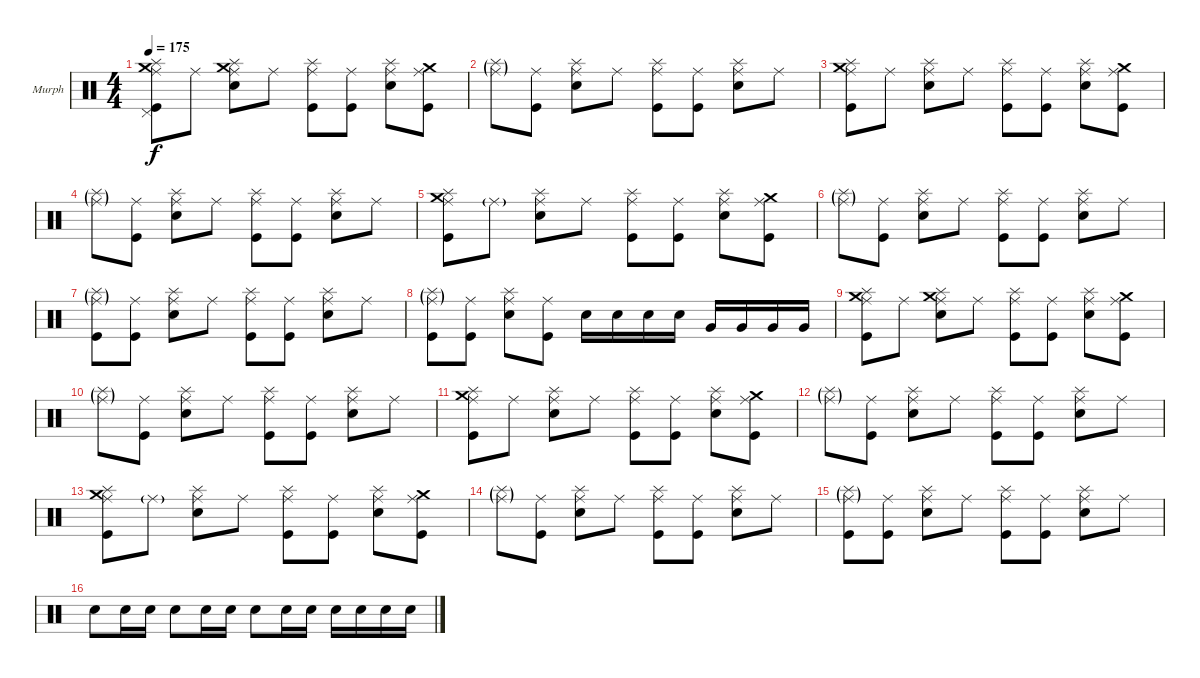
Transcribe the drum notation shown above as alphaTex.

\defaultSystemsLayout 4
\bracketExtendMode groupsimilarinstruments
\firstSystemTrackNameOrientation horizontal
\otherSystemsTrackNameOrientation horizontal
\track ("Murph" "Murph") {instrument percussion}
\staff {score}
\articulation defaults
\ts (4 4)
\tempo 175
\clef neutral
\scale
0.333333
\ks c
("Kick (hit)" "Pedal Hi-Hat (hit)" "Ride (middle)" "Splash (hit)" "Crash medium (hit)").8{dy f} "Ride (middle)".8 ("Snare (hit) 2" "Ride (middle)" "Splash (hit)" "Crash medium (hit)").8 "Ride (middle)".8 ("Kick (hit)" "Ride (middle)" "Splash (hit)").8 ("Kick (hit)" "Ride (middle)").8 ("Snare (hit) 2" "Ride (middle)" "Splash (hit)").8 ("Kick (hit)" "Ride (middle)" "Crash medium (hit)").8 |
\scale
0.333333 ("Ride (middle)"{g} "Splash (hit)"{g}).8 ("Kick (hit)" "Ride (middle)").8 ("Snare (hit) 2" "Ride (middle)" "Splash (hit)").8 "Ride (middle)".8 ("Kick (hit)" "Ride (middle)" "Splash (hit)").8 ("Kick (hit)" "Ride (middle)").8 ("Snare (hit) 2" "Ride (middle)" "Splash (hit)").8 "Ride (middle)".8 |
\scale
0.333333 ("Kick (hit)" "Ride (middle)" "Splash (hit)" "Crash medium (hit)").8 "Ride (middle)".8 ("Snare (hit) 2" "Ride (middle)" "Splash (hit)").8 "Ride (middle)".8 ("Kick (hit)" "Ride (middle)" "Splash (hit)").8 ("Kick (hit)" "Ride (middle)").8 ("Snare (hit) 2" "Ride (middle)" "Splash (hit)").8 ("Kick (hit)" "Ride (middle)" "Crash medium (hit)").8 |
\scale
0.333333 ("Ride (middle)"{g} "Splash (hit)"{g}).8 ("Kick (hit)" "Ride (middle)").8 ("Snare (hit) 2" "Ride (middle)" "Splash (hit)").8 "Ride (middle)".8 ("Kick (hit)" "Ride (middle)" "Splash (hit)").8 ("Kick (hit)" "Ride (middle)").8 ("Snare (hit) 2" "Ride (middle)" "Splash (hit)").8 "Ride (middle)".8 |
\scale
0.333333 ("Kick (hit)" "Ride (middle)" "Splash (hit)" "Crash medium (hit)").8 "Ride (middle)"{g}.8 ("Snare (hit) 2" "Ride (middle)" "Splash (hit)").8 "Ride (middle)".8 ("Kick (hit)" "Ride (middle)" "Splash (hit)").8 ("Kick (hit)" "Ride (middle)").8 ("Snare (hit) 2" "Ride (middle)" "Splash (hit)").8 ("Kick (hit)" "Ride (middle)" "Crash medium (hit)").8 |
\scale
0.333333 ("Ride (middle)"{g} "Splash (hit)"{g}).8 ("Kick (hit)" "Ride (middle)").8 ("Snare (hit) 2" "Ride (middle)" "Splash (hit)").8 "Ride (middle)".8 ("Kick (hit)" "Ride (middle)" "Splash (hit)").8 ("Kick (hit)" "Ride (middle)").8 ("Snare (hit) 2" "Ride (middle)" "Splash (hit)").8 "Ride (middle)".8 |
\scale
0.333333 ("Kick (hit)" "Ride (middle)"{g} "Splash (hit)"{g}).8 ("Kick (hit)" "Ride (middle)").8 ("Snare (hit) 2" "Ride (middle)" "Splash (hit)").8 "Ride (middle)".8 ("Kick (hit)" "Ride (middle)" "Splash (hit)").8 ("Kick (hit)" "Ride (middle)").8 ("Snare (hit) 2" "Ride (middle)" "Splash (hit)").8 "Ride (middle)".8 |
\scale
0.333333 ("Kick (hit)" "Ride (middle)"{g} "Splash (hit)"{g}).8 ("Kick (hit)" "Ride (middle)").8 ("Snare (hit) 2" "Ride (middle)" "Splash (hit)").8 ("Kick (hit)" "Ride (middle)").8 "Snare (hit) 2".16 "Snare (hit) 2".16 "Snare (hit) 2".16 "Snare (hit) 2".16 "Very Low Tom (hit)".16 "Very Low Tom (hit)".16 "Very Low Tom (hit)".16 "Very Low Tom (hit)".16 |
\scale
0.333333 ("Kick (hit)" "Ride (middle)" "Splash (hit)" "Crash medium (hit)").8 "Ride (middle)".8 ("Snare (hit) 2" "Ride (middle)" "Splash (hit)" "Crash medium (hit)").8 "Ride (middle)".8 ("Kick (hit)" "Ride (middle)" "Splash (hit)").8 ("Kick (hit)" "Ride (middle)").8 ("Snare (hit) 2" "Ride (middle)" "Splash (hit)").8 ("Kick (hit)" "Ride (middle)" "Crash medium (hit)").8 |
\scale
0.333333 ("Ride (middle)"{g} "Splash (hit)"{g}).8 ("Kick (hit)" "Ride (middle)").8 ("Snare (hit) 2" "Ride (middle)" "Splash (hit)").8 "Ride (middle)".8 ("Kick (hit)" "Ride (middle)" "Splash (hit)").8 ("Kick (hit)" "Ride (middle)").8 ("Snare (hit) 2" "Ride (middle)" "Splash (hit)").8 "Ride (middle)".8 |
\scale
0.333333 ("Kick (hit)" "Ride (middle)" "Splash (hit)" "Crash medium (hit)").8 "Ride (middle)".8 ("Snare (hit) 2" "Ride (middle)" "Splash (hit)").8 "Ride (middle)".8 ("Kick (hit)" "Ride (middle)" "Splash (hit)").8 ("Kick (hit)" "Ride (middle)").8 ("Snare (hit) 2" "Ride (middle)" "Splash (hit)").8 ("Kick (hit)" "Ride (middle)" "Crash medium (hit)").8 |
\scale
0.333333 ("Ride (middle)"{g} "Splash (hit)"{g}).8 ("Kick (hit)" "Ride (middle)").8 ("Snare (hit) 2" "Ride (middle)" "Splash (hit)").8 "Ride (middle)".8 ("Kick (hit)" "Ride (middle)" "Splash (hit)").8 ("Kick (hit)" "Ride (middle)").8 ("Snare (hit) 2" "Ride (middle)" "Splash (hit)").8 "Ride (middle)".8 |
\scale
0.333333 ("Kick (hit)" "Ride (middle)" "Splash (hit)" "Crash medium (hit)").8 "Ride (middle)"{g}.8 ("Snare (hit) 2" "Ride (middle)" "Splash (hit)").8 "Ride (middle)".8 ("Kick (hit)" "Ride (middle)" "Splash (hit)").8 ("Kick (hit)" "Ride (middle)").8 ("Snare (hit) 2" "Ride (middle)" "Splash (hit)").8 ("Kick (hit)" "Ride (middle)" "Crash medium (hit)").8 |
\scale
0.333333 ("Ride (middle)"{g} "Splash (hit)"{g}).8 ("Kick (hit)" "Ride (middle)").8 ("Snare (hit) 2" "Ride (middle)" "Splash (hit)").8 "Ride (middle)".8 ("Kick (hit)" "Ride (middle)" "Splash (hit)").8 ("Kick (hit)" "Ride (middle)").8 ("Snare (hit) 2" "Ride (middle)" "Splash (hit)").8 "Ride (middle)".8 |
\scale
0.333333 ("Kick (hit)" "Ride (middle)"{g} "Splash (hit)"{g}).8 ("Kick (hit)" "Ride (middle)").8 ("Snare (hit) 2" "Ride (middle)" "Splash (hit)").8 "Ride (middle)".8 ("Kick (hit)" "Ride (middle)" "Splash (hit)").8 ("Kick (hit)" "Ride (middle)").8 ("Snare (hit) 2" "Ride (middle)" "Splash (hit)").8 "Ride (middle)".8 |
\scale
0.333333 "Snare (hit) 2".8 "Snare (hit) 2".16 "Snare (hit) 2".16 "Snare (hit) 2".8 "Snare (hit) 2".16 "Snare (hit) 2".16 "Snare (hit) 2".8 "Snare (hit) 2".16 "Snare (hit) 2".16 "Snare (hit) 2".16 "Snare (hit) 2".16 "Snare (hit) 2".16 "Snare (hit) 2".16
